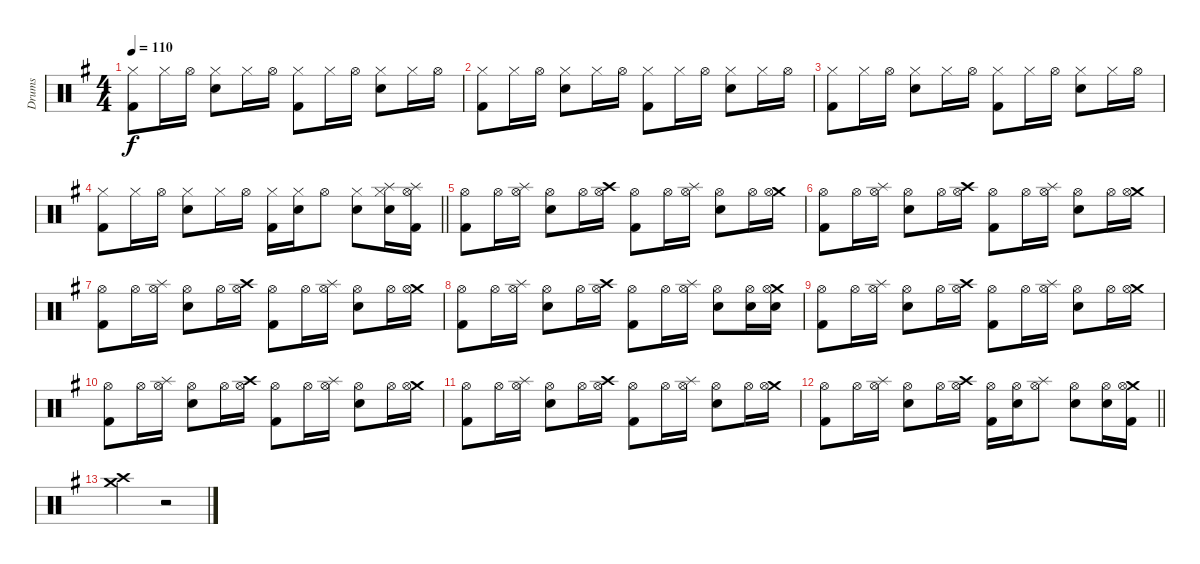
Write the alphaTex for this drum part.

\track ("Drums" "Drums") {instrument percussion}
\staff {score}
\articulation defaults
\ts (4 4)
\tempo 110
\clef neutral
\ks g
("Kick (hit) 2" "Hi-Hat (closed)").8{dy f} "Hi-Hat (closed)".16 "Hi-Hat (open)".16 ("Snare (hit) 2" "Hi-Hat (closed)").8 "Hi-Hat (closed)".16 "Hi-Hat (open)".16 ("Kick (hit) 2" "Hi-Hat (closed)").8 "Hi-Hat (closed)".16 "Hi-Hat (open)".16 ("Snare (hit) 2" "Hi-Hat (closed)").8 "Hi-Hat (closed)".16 "Hi-Hat (open)".16 |
("Kick (hit) 2" "Hi-Hat (closed)").8 "Hi-Hat (closed)".16 "Hi-Hat (open)".16 ("Snare (hit) 2" "Hi-Hat (closed)").8 "Hi-Hat (closed)".16 "Hi-Hat (open)".16 ("Kick (hit) 2" "Hi-Hat (closed)").8 "Hi-Hat (closed)".16 "Hi-Hat (open)".16 ("Snare (hit) 2" "Hi-Hat (closed)").8 "Hi-Hat (closed)".16 "Hi-Hat (open)".16 |
("Kick (hit) 2" "Hi-Hat (closed)").8 "Hi-Hat (closed)".16 "Hi-Hat (open)".16 ("Snare (hit) 2" "Hi-Hat (closed)").8 "Hi-Hat (closed)".16 "Hi-Hat (open)".16 ("Kick (hit) 2" "Hi-Hat (closed)").8 "Hi-Hat (closed)".16 "Hi-Hat (open)".16 ("Snare (hit) 2" "Hi-Hat (closed)").8 "Hi-Hat (closed)".16 "Hi-Hat (open)".16 |
\barLineRight lightlight
("Kick (hit) 2" "Hi-Hat (closed)").8 "Hi-Hat (closed)".16 "Hi-Hat (open)".16 ("Snare (hit) 2" "Hi-Hat (closed)").8 "Hi-Hat (closed)".16 "Hi-Hat (open)".16 ("Kick (hit) 2" "Hi-Hat (closed)").16 ("Hi-Hat (closed)" "Snare (hit) 2").16 "Hi-Hat (open)".8 ("Snare (hit) 2" "Hi-Hat (closed)").8 ("Snare (hit) 2" "Hi-Hat (closed)" "Splash (hit)").16 ("Kick (hit) 2" "Splash (hit)" "Hi-Hat (open)").16 |
("Hi-Hat (open)" "Kick (hit) 2").8 "Hi-Hat (open)".16 ("Splash (hit)" "Hi-Hat (open)").16 ("Snare (hit) 2" "Hi-Hat (open)").8 "Hi-Hat (open)".16 ("Crash high (hit)" "Hi-Hat (open)").16 ("Hi-Hat (open)" "Kick (hit) 2").8 "Hi-Hat (open)".16 ("Splash (hit)" "Hi-Hat (open)").16 ("Snare (hit) 2" "Hi-Hat (open)").8 "Hi-Hat (open)".16 ("Crash medium (hit)" "Hi-Hat (open)").16 |
("Hi-Hat (open)" "Kick (hit) 2").8 "Hi-Hat (open)".16 ("Splash (hit)" "Hi-Hat (open)").16 ("Snare (hit) 2" "Hi-Hat (open)").8 "Hi-Hat (open)".16 ("Crash high (hit)" "Hi-Hat (open)").16 ("Hi-Hat (open)" "Kick (hit) 2").8 "Hi-Hat (open)".16 ("Splash (hit)" "Hi-Hat (open)").16 ("Snare (hit) 2" "Hi-Hat (open)").8 "Hi-Hat (open)".16 ("Crash medium (hit)" "Hi-Hat (open)").16 |
("Hi-Hat (open)" "Kick (hit) 2").8 "Hi-Hat (open)".16 ("Splash (hit)" "Hi-Hat (open)").16 ("Snare (hit) 2" "Hi-Hat (open)").8 "Hi-Hat (open)".16 ("Crash high (hit)" "Hi-Hat (open)").16 ("Hi-Hat (open)" "Kick (hit) 2").8 "Hi-Hat (open)".16 ("Splash (hit)" "Hi-Hat (open)").16 ("Snare (hit) 2" "Hi-Hat (open)").8 "Hi-Hat (open)".16 ("Crash medium (hit)" "Hi-Hat (open)").16 |
("Hi-Hat (open)" "Kick (hit) 2").8 "Hi-Hat (open)".16 ("Splash (hit)" "Hi-Hat (open)").16 ("Snare (hit) 2" "Hi-Hat (open)").8 "Hi-Hat (open)".16 ("Crash high (hit)" "Hi-Hat (open)").16 ("Hi-Hat (open)" "Kick (hit) 2").8 "Hi-Hat (open)".16 ("Splash (hit)" "Hi-Hat (open)").16 ("Snare (hit) 2" "Hi-Hat (open)").8 ("Hi-Hat (open)" "Snare (hit) 2").16 ("Crash medium (hit)" "Snare (hit) 2" "Hi-Hat (open)").16 |
("Hi-Hat (open)" "Kick (hit) 2").8 "Hi-Hat (open)".16 ("Splash (hit)" "Hi-Hat (open)").16 ("Snare (hit) 2" "Hi-Hat (open)").8 "Hi-Hat (open)".16 ("Crash high (hit)" "Hi-Hat (open)").16 ("Hi-Hat (open)" "Kick (hit) 2").8 "Hi-Hat (open)".16 ("Splash (hit)" "Hi-Hat (open)").16 ("Snare (hit) 2" "Hi-Hat (open)").8 "Hi-Hat (open)".16 ("Crash medium (hit)" "Hi-Hat (open)").16 |
("Hi-Hat (open)" "Kick (hit) 2").8 "Hi-Hat (open)".16 ("Splash (hit)" "Hi-Hat (open)").16 ("Snare (hit) 2" "Hi-Hat (open)").8 "Hi-Hat (open)".16 ("Crash high (hit)" "Hi-Hat (open)").16 ("Hi-Hat (open)" "Kick (hit) 2").8 "Hi-Hat (open)".16 ("Splash (hit)" "Hi-Hat (open)").16 ("Snare (hit) 2" "Hi-Hat (open)").8 "Hi-Hat (open)".16 ("Crash medium (hit)" "Hi-Hat (open)").16 |
("Hi-Hat (open)" "Kick (hit) 2").8 "Hi-Hat (open)".16 ("Splash (hit)" "Hi-Hat (open)").16 ("Snare (hit) 2" "Hi-Hat (open)").8 "Hi-Hat (open)".16 ("Crash high (hit)" "Hi-Hat (open)").16 ("Hi-Hat (open)" "Kick (hit) 2").8 "Hi-Hat (open)".16 ("Splash (hit)" "Hi-Hat (open)").16 ("Snare (hit) 2" "Hi-Hat (open)").8 "Hi-Hat (open)".16 ("Crash medium (hit)" "Hi-Hat (open)").16 |
\barLineRight lightlight
("Hi-Hat (open)" "Kick (hit) 2").8 "Hi-Hat (open)".16 ("Splash (hit)" "Hi-Hat (open)").16 ("Snare (hit) 2" "Hi-Hat (open)").8 "Hi-Hat (open)".16 ("Crash high (hit)" "Hi-Hat (open)").16 ("Hi-Hat (open)" "Kick (hit) 2").16 ("Hi-Hat (open)" "Snare (hit) 2").16 ("Splash (hit)" "Hi-Hat (open)").8 ("Snare (hit) 2" "Hi-Hat (open)").8 ("Hi-Hat (open)" "Snare (hit) 2").16 ("Crash medium (hit)" "Kick (hit) 2" "Hi-Hat (open)").16 |
("Crash high (hit)" "Crash medium (hit)").2 r.2
